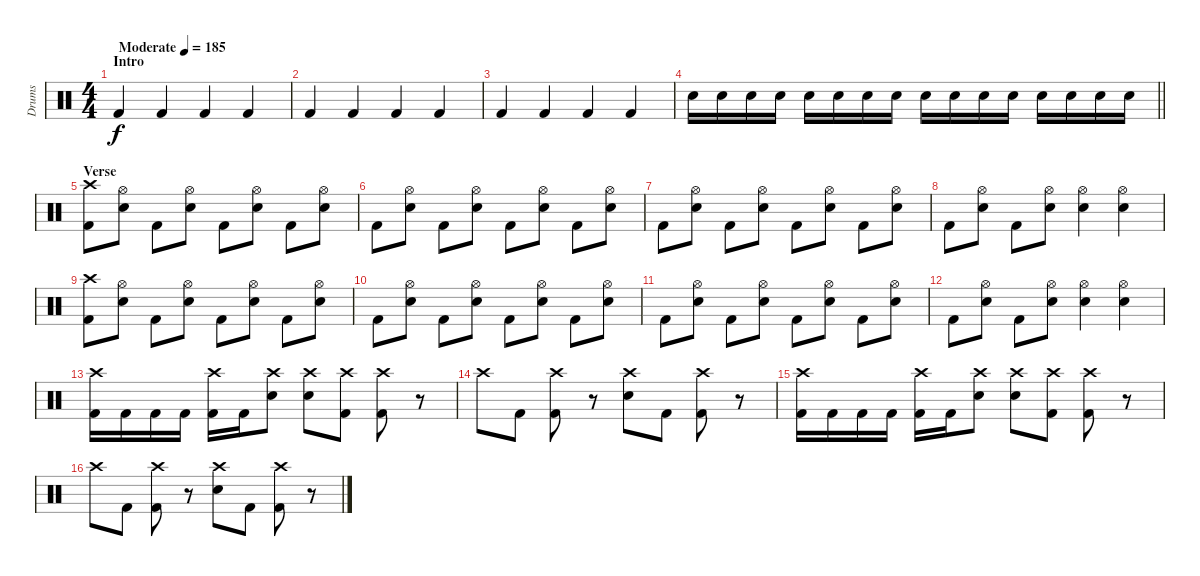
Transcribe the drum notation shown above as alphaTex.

\track ("Drums" "Drums") {instrument percussion}
\staff {score}
\articulation defaults
\ts (4 4)
\section ("" "Intro")
\tempo (185 "Moderate")
\clef neutral
\ks c "Kick (hit) 2".4{dy f} "Kick (hit) 2".4 "Kick (hit) 2".4 "Kick (hit) 2".4
|
"Kick (hit) 2".4 "Kick (hit) 2".4 "Kick (hit) 2".4 "Kick (hit) 2".4 |
"Kick (hit) 2".4 "Kick (hit) 2".4 "Kick (hit) 2".4 "Kick (hit) 2".4 |
\barLineRight lightlight "Electric Snare (hit)".16 "Electric Snare (hit)".16 "Electric Snare (hit)".16 "Electric Snare (hit)".16 "Electric Snare (hit)".16 "Electric Snare (hit)".16 "Electric Snare (hit)".16 "Electric Snare (hit)".16 "Electric Snare (hit)".16 "Electric Snare (hit)".16 "Electric Snare (hit)".16 "Electric Snare (hit)".16 "Electric Snare (hit)".16 "Electric Snare (hit)".16 "Electric Snare (hit)".16 "Electric Snare (hit)".16
|
\section ("" "Verse")
("Crash high (hit)" "Kick (hit) 2").8 ("Hi-Hat (open)" "Electric Snare (hit)").8 "Kick (hit) 2".8 ("Hi-Hat (open)" "Electric Snare (hit)").8 "Kick (hit) 2".8 ("Hi-Hat (open)" "Electric Snare (hit)").8 "Kick (hit) 2".8 ("Hi-Hat (open)" "Electric Snare (hit)").8 |
"Kick (hit) 2".8 ("Hi-Hat (open)" "Electric Snare (hit)").8 "Kick (hit) 2".8 ("Hi-Hat (open)" "Electric Snare (hit)").8 "Kick (hit) 2".8 ("Hi-Hat (open)" "Electric Snare (hit)").8 "Kick (hit) 2".8 ("Hi-Hat (open)" "Electric Snare (hit)").8 |
"Kick (hit) 2".8 ("Hi-Hat (open)" "Electric Snare (hit)").8 "Kick (hit) 2".8 ("Hi-Hat (open)" "Electric Snare (hit)").8 "Kick (hit) 2".8 ("Hi-Hat (open)" "Electric Snare (hit)").8 "Kick (hit) 2".8 ("Hi-Hat (open)" "Electric Snare (hit)").8 |
"Kick (hit) 2".8 ("Hi-Hat (open)" "Electric Snare (hit)").8 "Kick (hit) 2".8 ("Hi-Hat (open)" "Electric Snare (hit)").8 ("Hi-Hat (open)" "Electric Snare (hit)").4 ("Hi-Hat (open)" "Electric Snare (hit)").4 |
("Crash high (hit)" "Kick (hit) 2").8 ("Hi-Hat (open)" "Electric Snare (hit)").8 "Kick (hit) 2".8 ("Hi-Hat (open)" "Electric Snare (hit)").8 "Kick (hit) 2".8 ("Hi-Hat (open)" "Electric Snare (hit)").8 "Kick (hit) 2".8 ("Hi-Hat (open)" "Electric Snare (hit)").8 |
"Kick (hit) 2".8 ("Hi-Hat (open)" "Electric Snare (hit)").8 "Kick (hit) 2".8 ("Hi-Hat (open)" "Electric Snare (hit)").8 "Kick (hit) 2".8 ("Hi-Hat (open)" "Electric Snare (hit)").8 "Kick (hit) 2".8 ("Hi-Hat (open)" "Electric Snare (hit)").8 |
"Kick (hit) 2".8 ("Hi-Hat (open)" "Electric Snare (hit)").8 "Kick (hit) 2".8 ("Hi-Hat (open)" "Electric Snare (hit)").8 "Kick (hit) 2".8 ("Hi-Hat (open)" "Electric Snare (hit)").8 "Kick (hit) 2".8 ("Hi-Hat (open)" "Electric Snare (hit)").8 |
"Kick (hit) 2".8 ("Hi-Hat (open)" "Electric Snare (hit)").8 "Kick (hit) 2".8 ("Hi-Hat (open)" "Electric Snare (hit)").8 ("Hi-Hat (open)" "Electric Snare (hit)").4 ("Hi-Hat (open)" "Electric Snare (hit)").4 |
("Crash high (hit)" "Kick (hit) 2").16 "Kick (hit) 2".16 "Kick (hit) 2".16 "Kick (hit) 2".16 ("Crash high (hit)" "Kick (hit) 2").16 "Kick (hit) 2".16 ("Crash high (hit)" "Electric Snare (hit)").8 ("Crash high (hit)" "Electric Snare (hit)").8 ("Crash high (hit)" "Kick (hit) 2").8 ("Crash high (hit)" "Kick (hit) 2").8 r.8 |
"Crash high (hit)".8 "Kick (hit) 2".8 ("Crash high (hit)" "Kick (hit) 2").8 r.8 ("Crash high (hit)" "Electric Snare (hit)").8 "Kick (hit) 2".8 ("Crash high (hit)" "Kick (hit) 2").8 r.8 |
("Crash high (hit)" "Kick (hit) 2").16 "Kick (hit) 2".16 "Kick (hit) 2".16 "Kick (hit) 2".16 ("Crash high (hit)" "Kick (hit) 2").16 "Kick (hit) 2".16 ("Crash high (hit)" "Electric Snare (hit)").8 ("Crash high (hit)" "Electric Snare (hit)").8 ("Crash high (hit)" "Kick (hit) 2").8 ("Crash high (hit)" "Kick (hit) 2").8 r.8 |
"Crash high (hit)".8 "Kick (hit) 2".8 ("Crash high (hit)" "Kick (hit) 2").8 r.8 ("Crash high (hit)" "Electric Snare (hit)").8 "Kick (hit) 2".8 ("Crash high (hit)" "Kick (hit) 2").8 r.8
